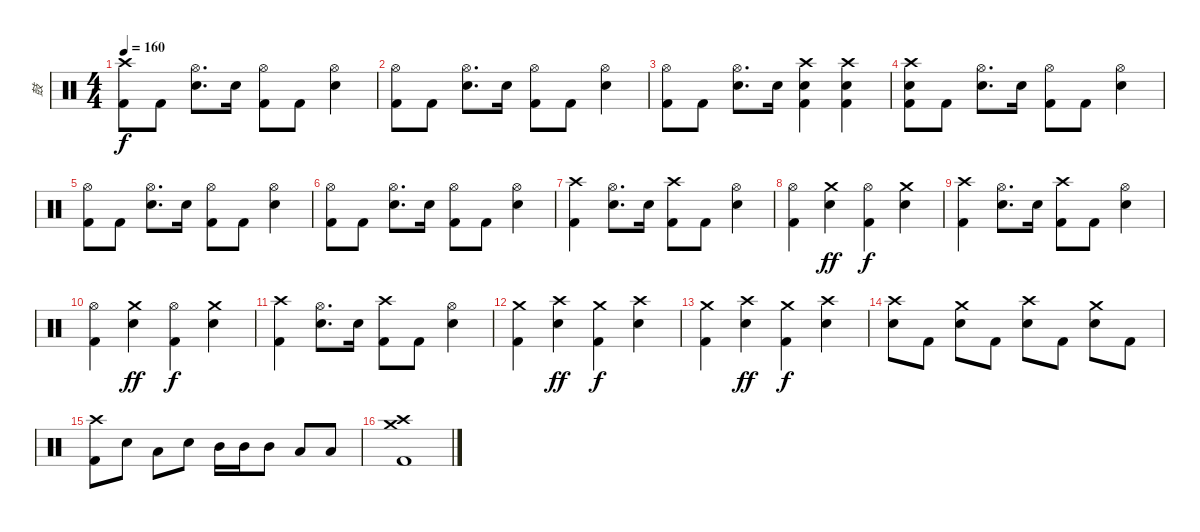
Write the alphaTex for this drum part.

\track ("鼓" "鼓") {instrument percussion}
\staff {score}
\articulation defaults
\ts (4 4)
\tempo 160
\clef neutral
\ks c
("Crash high (hit)" "Kick (hit) 2").8{dy f} "Kick (hit) 2".8 ("Hi-Hat (open)" "Snare (hit) 2").8{d} "Snare (hit) 2".16 ("Hi-Hat (open)" "Kick (hit) 2").8 "Kick (hit) 2".8 ("Hi-Hat (open)" "Snare (hit) 2").4 |
("Hi-Hat (open)" "Kick (hit) 2").8 "Kick (hit) 2".8 ("Hi-Hat (open)" "Snare (hit) 2").8{d} "Snare (hit) 2".16 ("Hi-Hat (open)" "Kick (hit) 2").8 "Kick (hit) 2".8 ("Hi-Hat (open)" "Snare (hit) 2").4 |
("Hi-Hat (open)" "Kick (hit) 2").8 "Kick (hit) 2".8 ("Hi-Hat (open)" "Snare (hit) 2").8{d} "Snare (hit) 2".16 ("Crash high (hit)" "Snare (hit) 2" "Kick (hit) 2").4 ("Crash high (hit)" "Snare (hit) 2" "Kick (hit) 2").4 |
("Crash high (hit)" "Snare (hit) 2" "Kick (hit) 2").8 "Kick (hit) 2".8 ("Hi-Hat (open)" "Snare (hit) 2").8{d} "Snare (hit) 2".16 ("Hi-Hat (open)" "Kick (hit) 2").8 "Kick (hit) 2".8 ("Hi-Hat (open)" "Snare (hit) 2").4 |
("Hi-Hat (open)" "Kick (hit) 2").8 "Kick (hit) 2".8 ("Hi-Hat (open)" "Snare (hit) 2").8{d} "Snare (hit) 2".16 ("Hi-Hat (open)" "Kick (hit) 2").8 "Kick (hit) 2".8 ("Hi-Hat (open)" "Snare (hit) 2").4 |
("Hi-Hat (open)" "Kick (hit) 2").8 "Kick (hit) 2".8 ("Hi-Hat (open)" "Snare (hit) 2").8{d} "Snare (hit) 2".16 ("Hi-Hat (open)" "Kick (hit) 2").8 "Kick (hit) 2".8 ("Hi-Hat (open)" "Snare (hit) 2").4 |
("Crash high (hit)" "Kick (hit) 2").4 ("Hi-Hat (open)" "Snare (hit) 2").8{d} "Snare (hit) 2".16 ("Crash high (hit)" "Kick (hit) 2").8 "Kick (hit) 2".8 ("Hi-Hat (open)" "Snare (hit) 2").4 |
("Hi-Hat (open)" "Kick (hit) 2").4 ("Crash medium (hit)" "Snare (hit) 2").4{dy ff} ("Hi-Hat (open)" "Kick (hit) 2").4{dy f} ("Crash medium (hit)" "Snare (hit) 2").4 |
("Crash high (hit)" "Kick (hit) 2").4 ("Hi-Hat (open)" "Snare (hit) 2").8{d} "Snare (hit) 2".16 ("Crash high (hit)" "Kick (hit) 2").8 "Kick (hit) 2".8 ("Hi-Hat (open)" "Snare (hit) 2").4 |
("Hi-Hat (open)" "Kick (hit) 2").4 ("Crash medium (hit)" "Snare (hit) 2").4{dy ff} ("Hi-Hat (open)" "Kick (hit) 2").4{dy f} ("Crash medium (hit)" "Snare (hit) 2").4 |
("Crash high (hit)" "Kick (hit) 2").4 ("Hi-Hat (open)" "Snare (hit) 2").8{d} "Snare (hit) 2".16 ("Crash high (hit)" "Kick (hit) 2").8 "Kick (hit) 2".8 ("Hi-Hat (open)" "Snare (hit) 2").4 |
("Crash medium (hit)" "Kick (hit) 2").4 ("Crash high (hit)" "Snare (hit) 2").4{dy ff} ("Crash medium (hit)" "Kick (hit) 2").4{dy f} ("Crash high (hit)" "Snare (hit) 2").4 |
("Crash medium (hit)" "Kick (hit) 2").4 ("Crash high (hit)" "Snare (hit) 2").4{dy ff} ("Crash medium (hit)" "Kick (hit) 2").4{dy f} ("Crash high (hit)" "Snare (hit) 2").4 |
("Crash high (hit)" "Snare (hit) 2").8 "Kick (hit) 2".8 ("Crash medium (hit)" "Snare (hit) 2").8 "Kick (hit) 2".8 ("Crash high (hit)" "Snare (hit) 2").8 "Kick (hit) 2".8 ("Crash medium (hit)" "Snare (hit) 2").8 "Kick (hit) 2".8 |
("Crash high (hit)" "Kick (hit) 2").8 "Snare (hit) 2".8 "Low Tom (hit)".8 "Snare (hit) 2".8 "Mid Tom (hit)".16 "Mid Tom (hit)".16 "Mid Tom (hit)".8 "Low Floor Tom (hit)".8 "Low Floor Tom (hit)".8 |
("Crash high (hit)" "Crash medium (hit)" "Kick (hit) 2").1
